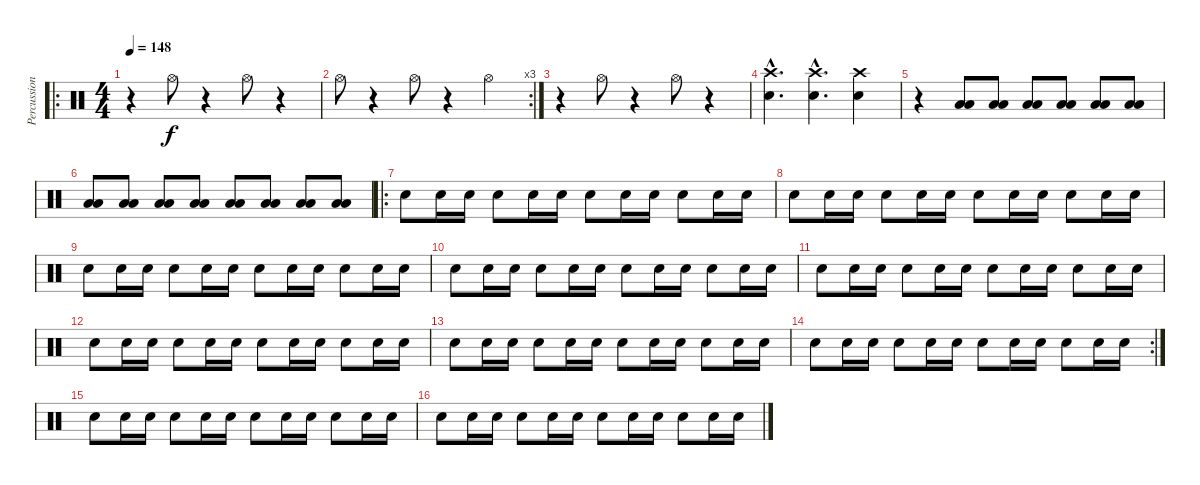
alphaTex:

\track ("Percussions" "Percussion") {instrument percussion}
\staff {score}
\articulation defaults
\ro
\ts (4 4)
\tempo 148
\clef neutral
\ks c
r.4{dy f} "Hi-Hat (open)".8 r.4 "Hi-Hat (open)".8 r.4 |
\rc 3 "Hi-Hat (open)".8
r.4 "Hi-Hat (open)".8 r.4 "Hi-Hat (open)".4 |
r.4 "Hi-Hat (open)".8 r.4 "Hi-Hat (open)".8 r.4 |
("Crash high (hit)"{hac} "Snare (hit) 2"{hac}).4{d} ("Crash high (hit)"{hac} "Snare (hit) 2"{hac}).4{d} ("Crash high (hit)" "Snare (hit) 2").4 |
r.4 ("Low Tom (hit)" "Low Floor Tom (hit)").8 ("Low Tom (hit)" "Low Floor Tom (hit)").8 ("Low Tom (hit)" "Low Floor Tom (hit)").8 ("Low Tom (hit)" "Low Floor Tom (hit)").8 ("Low Tom (hit)" "Low Floor Tom (hit)").8 ("Low Tom (hit)" "Low Floor Tom (hit)").8 |
("Low Tom (hit)" "Low Floor Tom (hit)").8 ("Low Tom (hit)" "Low Floor Tom (hit)").8 ("Low Tom (hit)" "Low Floor Tom (hit)").8 ("Low Tom (hit)" "Low Floor Tom (hit)").8 ("Low Tom (hit)" "Low Floor Tom (hit)").8 ("Low Tom (hit)" "Low Floor Tom (hit)").8 ("Low Tom (hit)" "Low Floor Tom (hit)").8 ("Low Tom (hit)" "Low Floor Tom (hit)").8 |
\ro "Snare (hit) 2".8{volume 8} "Snare (hit) 2".16 "Snare (hit) 2".16 "Snare (hit) 2".8 "Snare (hit) 2".16 "Snare (hit) 2".16 "Snare (hit) 2".8 "Snare (hit) 2".16 "Snare (hit) 2".16 "Snare (hit) 2".8 "Snare (hit) 2".16 "Snare (hit) 2".16
|
"Snare (hit) 2".8 "Snare (hit) 2".16 "Snare (hit) 2".16 "Snare (hit) 2".8 "Snare (hit) 2".16 "Snare (hit) 2".16 "Snare (hit) 2".8 "Snare (hit) 2".16 "Snare (hit) 2".16 "Snare (hit) 2".8 "Snare (hit) 2".16 "Snare (hit) 2".16 |
"Snare (hit) 2".8 "Snare (hit) 2".16 "Snare (hit) 2".16 "Snare (hit) 2".8 "Snare (hit) 2".16 "Snare (hit) 2".16 "Snare (hit) 2".8 "Snare (hit) 2".16 "Snare (hit) 2".16 "Snare (hit) 2".8 "Snare (hit) 2".16 "Snare (hit) 2".16 |
"Snare (hit) 2".8 "Snare (hit) 2".16 "Snare (hit) 2".16 "Snare (hit) 2".8 "Snare (hit) 2".16 "Snare (hit) 2".16 "Snare (hit) 2".8 "Snare (hit) 2".16 "Snare (hit) 2".16 "Snare (hit) 2".8 "Snare (hit) 2".16 "Snare (hit) 2".16 |
"Snare (hit) 2".8 "Snare (hit) 2".16 "Snare (hit) 2".16 "Snare (hit) 2".8 "Snare (hit) 2".16 "Snare (hit) 2".16 "Snare (hit) 2".8 "Snare (hit) 2".16 "Snare (hit) 2".16 "Snare (hit) 2".8 "Snare (hit) 2".16 "Snare (hit) 2".16 |
"Snare (hit) 2".8 "Snare (hit) 2".16 "Snare (hit) 2".16 "Snare (hit) 2".8 "Snare (hit) 2".16 "Snare (hit) 2".16 "Snare (hit) 2".8 "Snare (hit) 2".16 "Snare (hit) 2".16 "Snare (hit) 2".8 "Snare (hit) 2".16 "Snare (hit) 2".16 |
"Snare (hit) 2".8 "Snare (hit) 2".16 "Snare (hit) 2".16 "Snare (hit) 2".8 "Snare (hit) 2".16 "Snare (hit) 2".16 "Snare (hit) 2".8 "Snare (hit) 2".16 "Snare (hit) 2".16 "Snare (hit) 2".8 "Snare (hit) 2".16 "Snare (hit) 2".16 |
\rc 2 "Snare (hit) 2".8 "Snare (hit) 2".16 "Snare (hit) 2".16 "Snare (hit) 2".8 "Snare (hit) 2".16 "Snare (hit) 2".16 "Snare (hit) 2".8 "Snare (hit) 2".16 "Snare (hit) 2".16 "Snare (hit) 2".8 "Snare (hit) 2".16 "Snare (hit) 2".16
|
"Snare (hit) 2".8 "Snare (hit) 2".16 "Snare (hit) 2".16 "Snare (hit) 2".8 "Snare (hit) 2".16 "Snare (hit) 2".16 "Snare (hit) 2".8 "Snare (hit) 2".16 "Snare (hit) 2".16 "Snare (hit) 2".8 "Snare (hit) 2".16 "Snare (hit) 2".16 |
"Snare (hit) 2".8 "Snare (hit) 2".16 "Snare (hit) 2".16 "Snare (hit) 2".8 "Snare (hit) 2".16 "Snare (hit) 2".16 "Snare (hit) 2".8 "Snare (hit) 2".16 "Snare (hit) 2".16 "Snare (hit) 2".8 "Snare (hit) 2".16 "Snare (hit) 2".16
